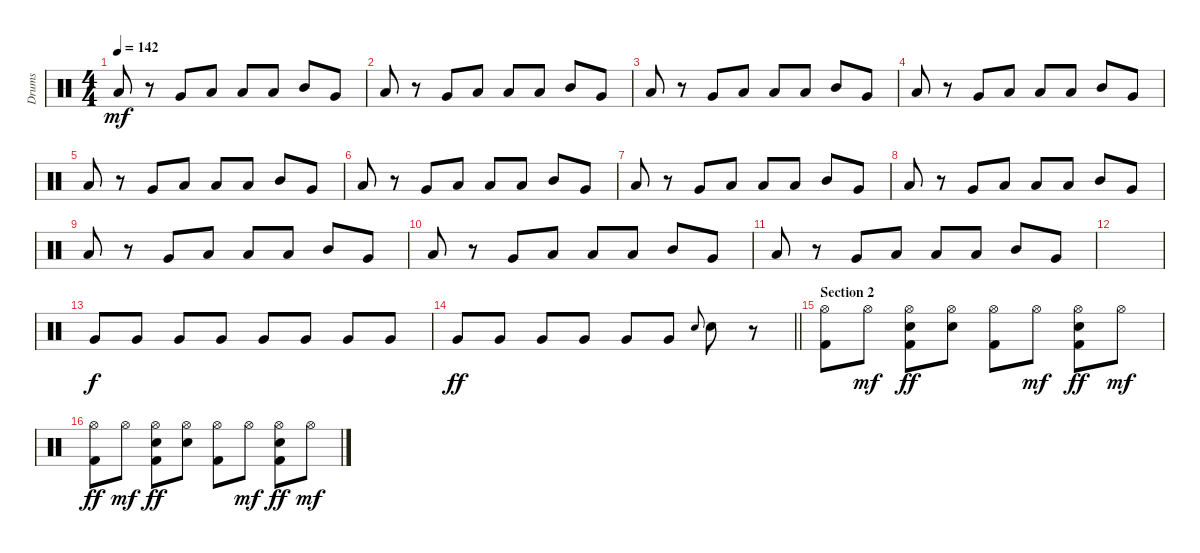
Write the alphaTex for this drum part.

\track ("Drums" "Drums") {instrument percussion}
\staff {score}
\articulation defaults
\ts (4 4)
\tempo 142
\clef neutral
\ks c "Low Tom (hit)".8{dy mf}
r.8 "Very Low Tom (hit)".8 "Low Tom (hit)".8 "Low Floor Tom (hit)".8 "Low Floor Tom (hit)".8 "Mid Tom (hit)".8 "Very Low Tom (hit)".8 |
"Low Tom (hit)".8 r.8 "Very Low Tom (hit)".8 "Low Tom (hit)".8 "Low Floor Tom (hit)".8 "Low Floor Tom (hit)".8 "Mid Tom (hit)".8 "Very Low Tom (hit)".8 |
"Low Tom (hit)".8 r.8 "Very Low Tom (hit)".8 "Low Tom (hit)".8 "Low Floor Tom (hit)".8 "Low Floor Tom (hit)".8 "Mid Tom (hit)".8 "Very Low Tom (hit)".8 |
"Low Tom (hit)".8 r.8 "Very Low Tom (hit)".8 "Low Tom (hit)".8 "Low Floor Tom (hit)".8 "Low Floor Tom (hit)".8 "Mid Tom (hit)".8 "Very Low Tom (hit)".8 |
"Low Tom (hit)".8 r.8 "Very Low Tom (hit)".8 "Low Tom (hit)".8 "Low Floor Tom (hit)".8 "Low Floor Tom (hit)".8 "Mid Tom (hit)".8 "Very Low Tom (hit)".8 |
"Low Tom (hit)".8 r.8 "Very Low Tom (hit)".8 "Low Tom (hit)".8 "Low Floor Tom (hit)".8 "Low Floor Tom (hit)".8 "Mid Tom (hit)".8 "Very Low Tom (hit)".8 |
"Low Tom (hit)".8 r.8 "Very Low Tom (hit)".8 "Low Tom (hit)".8 "Low Floor Tom (hit)".8 "Low Floor Tom (hit)".8 "Mid Tom (hit)".8 "Very Low Tom (hit)".8 |
"Low Tom (hit)".8 r.8 "Very Low Tom (hit)".8 "Low Tom (hit)".8 "Low Floor Tom (hit)".8 "Low Floor Tom (hit)".8 "Mid Tom (hit)".8 "Very Low Tom (hit)".8 |
"Low Tom (hit)".8 r.8 "Very Low Tom (hit)".8 "Low Tom (hit)".8 "Low Floor Tom (hit)".8 "Low Floor Tom (hit)".8 "Mid Tom (hit)".8 "Very Low Tom (hit)".8 |
"Low Tom (hit)".8 r.8 "Very Low Tom (hit)".8 "Low Tom (hit)".8 "Low Floor Tom (hit)".8 "Low Floor Tom (hit)".8 "Mid Tom (hit)".8 "Very Low Tom (hit)".8 |
"Low Tom (hit)".8{volume 4} r.8 "Very Low Tom (hit)".8 "Low Tom (hit)".8 "Low Floor Tom (hit)".8 "Low Floor Tom (hit)".8 "Mid Tom (hit)".8 "Very Low Tom (hit)".8 |
|
"Very Low Tom (hit)".8{dy f} "Very Low Tom (hit)".8 "Very Low Tom (hit)".8 "Very Low Tom (hit)".8 "Very Low Tom (hit)".8 "Very Low Tom (hit)".8 "Very Low Tom (hit)".8 "Very Low Tom (hit)".8 |
\barLineRight lightlight "Very Low Tom (hit)".8{dy ff volume 11} "Very Low Tom (hit)".8 "Very Low Tom (hit)".8 "Very Low Tom (hit)".8 "Very Low Tom (hit)".8 "Very Low Tom (hit)".8 "Snare (hit) 2".8{gr onbeat} "Snare (hit) 2".8
r.8 |
\section ("" "Section 2")
("Hi-Hat (open)" "Kick (hit) 2").8 "Hi-Hat (open)".8{dy mf} ("Hi-Hat (open)" "Snare (hit) 2" "Kick (hit) 2").8{dy ff} ("Hi-Hat (open)" "Snare (hit) 2").8 ("Hi-Hat (open)" "Kick (hit) 2").8 "Hi-Hat (open)".8{dy mf} ("Hi-Hat (open)" "Snare (hit) 2" "Kick (hit) 2").8{dy ff} "Hi-Hat (open)".8{dy mf} |
("Hi-Hat (open)" "Kick (hit) 2").8{dy ff} "Hi-Hat (open)".8{dy mf} ("Hi-Hat (open)" "Snare (hit) 2" "Kick (hit) 2").8{dy ff} ("Hi-Hat (open)" "Snare (hit) 2").8 ("Hi-Hat (open)" "Kick (hit) 2").8 "Hi-Hat (open)".8{dy mf} ("Hi-Hat (open)" "Snare (hit) 2" "Kick (hit) 2").8{dy ff} "Hi-Hat (open)".8{dy mf}
